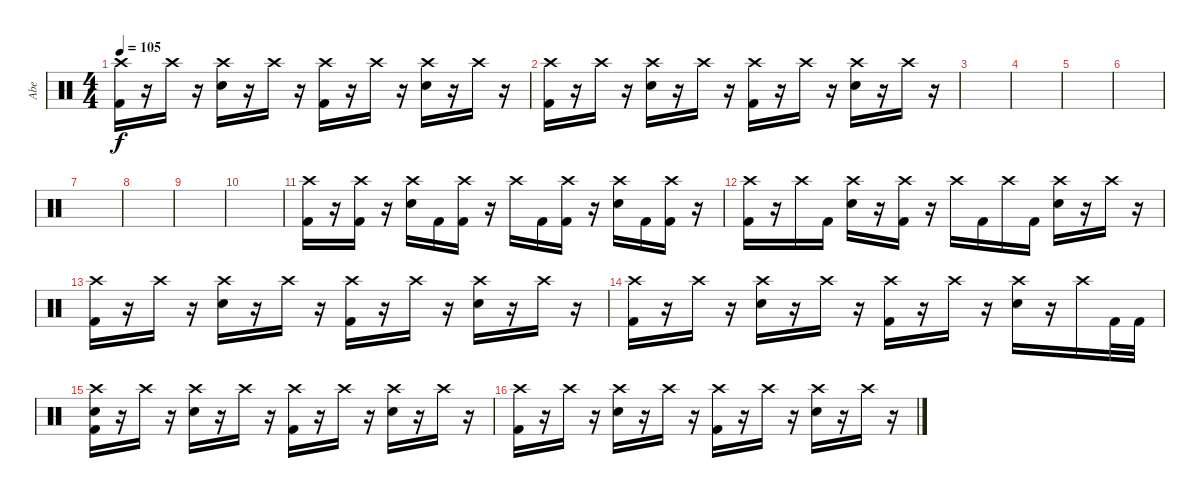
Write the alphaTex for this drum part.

\track ("Abe" "Abe") {instrument percussion}
\staff {score}
\articulation defaults
\ts (4 4)
\tempo 105
\clef neutral
\ks c
("Crash high (hit)" "Kick (hit) 2").16{dy f} r.16 "Crash high (hit)".16 r.16 ("Crash high (hit)" "Electric Snare (hit)").16 r.16 "Crash high (hit)".16 r.16 ("Crash high (hit)" "Kick (hit) 2").16 r.16 "Crash high (hit)".16 r.16 ("Crash high (hit)" "Electric Snare (hit)").16 r.16 "Crash high (hit)".16 r.16 |
("Crash high (hit)" "Kick (hit) 2").16 r.16 "Crash high (hit)".16 r.16 ("Crash high (hit)" "Electric Snare (hit)").16 r.16 "Crash high (hit)".16 r.16 ("Crash high (hit)" "Kick (hit) 2").16 r.16 "Crash high (hit)".16 r.16 ("Crash high (hit)" "Electric Snare (hit)").16 r.16 "Crash high (hit)".16 r.16 |
|
|
|
|
|
|
|
|
("Crash high (hit)" "Kick (hit) 2").16 r.16 ("Crash high (hit)" "Kick (hit) 2").16 r.16 ("Crash high (hit)" "Electric Snare (hit)").16 "Kick (hit) 2".16 ("Crash high (hit)" "Kick (hit) 2").16 r.16 "Crash high (hit)".16 "Kick (hit) 2".16 ("Crash high (hit)" "Kick (hit) 2").16 r.16 ("Crash high (hit)" "Electric Snare (hit)").16 "Kick (hit) 2".16 ("Crash high (hit)" "Kick (hit) 2").16 r.16 |
("Crash high (hit)" "Kick (hit) 2").16 r.16 "Crash high (hit)".16 "Kick (hit) 2".16 ("Crash high (hit)" "Electric Snare (hit)").16 r.16 ("Crash high (hit)" "Kick (hit) 2").16 r.16 "Crash high (hit)".16 "Kick (hit) 2".16 "Crash high (hit)".16 "Kick (hit) 2".16 ("Crash high (hit)" "Electric Snare (hit)").16 r.16 "Crash high (hit)".16 r.16 |
("Crash high (hit)" "Kick (hit) 2").16 r.16 "Crash high (hit)".16 r.16 ("Crash high (hit)" "Electric Snare (hit)").16 r.16 "Crash high (hit)".16 r.16 ("Crash high (hit)" "Kick (hit) 2").16 r.16 "Crash high (hit)".16 r.16 ("Crash high (hit)" "Electric Snare (hit)").16 r.16 "Crash high (hit)".16 r.16 |
("Crash high (hit)" "Kick (hit) 2").16 r.16 "Crash high (hit)".16 r.16 ("Crash high (hit)" "Electric Snare (hit)").16 r.16 "Crash high (hit)".16 r.16 ("Crash high (hit)" "Kick (hit) 2").16 r.16 "Crash high (hit)".16 r.16 ("Crash high (hit)" "Electric Snare (hit)").16 r.16 "Crash high (hit)".16 "Kick (hit) 2".32 "Kick (hit) 2".32 |
("Crash high (hit)" "Electric Snare (hit)" "Kick (hit) 2").16 r.16 "Crash high (hit)".16 r.16 ("Crash high (hit)" "Electric Snare (hit)").16 r.16 "Crash high (hit)".16 r.16 ("Crash high (hit)" "Kick (hit) 2").16 r.16 "Crash high (hit)".16 r.16 ("Crash high (hit)" "Electric Snare (hit)").16 r.16 "Crash high (hit)".16 r.16 |
("Crash high (hit)" "Kick (hit) 2").16 r.16 "Crash high (hit)".16 r.16 ("Crash high (hit)" "Electric Snare (hit)").16 r.16 "Crash high (hit)".16 r.16 ("Crash high (hit)" "Kick (hit) 2").16 r.16 "Crash high (hit)".16 r.16 ("Crash high (hit)" "Electric Snare (hit)").16 r.16 "Crash high (hit)".16 r.16
